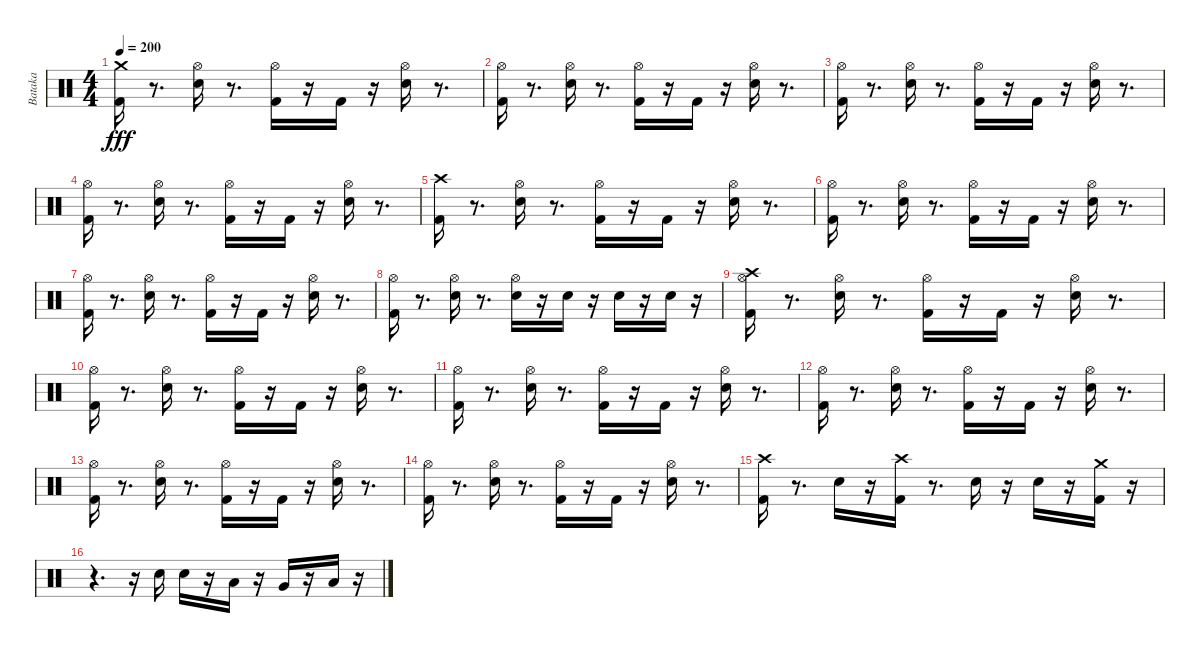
\track ("Bataka" "Bataka") {instrument percussion}
\staff {score}
\articulation defaults
\ts (4 4)
\tempo 200
\clef neutral
\ks c
("Kick (hit) 2" "Crash medium (hit)").16{dy fff} r.8{d} ("Electric Snare (hit)" "Hi-Hat (open)").16 r.8{d} ("Kick (hit) 2" "Hi-Hat (open)").16 r.16 "Kick (hit) 2".16 r.16 ("Electric Snare (hit)" "Hi-Hat (open)").16 r.8{d} |
("Kick (hit) 2" "Hi-Hat (open)").16 r.8{d} ("Electric Snare (hit)" "Hi-Hat (open)").16 r.8{d} ("Kick (hit) 2" "Hi-Hat (open)").16 r.16 "Kick (hit) 2".16 r.16 ("Electric Snare (hit)" "Hi-Hat (open)").16 r.8{d} |
("Kick (hit) 2" "Hi-Hat (open)").16 r.8{d} ("Electric Snare (hit)" "Hi-Hat (open)").16 r.8{d} ("Kick (hit) 2" "Hi-Hat (open)").16 r.16 "Kick (hit) 2".16 r.16 ("Electric Snare (hit)" "Hi-Hat (open)").16 r.8{d} |
("Kick (hit) 2" "Hi-Hat (open)").16 r.8{d} ("Electric Snare (hit)" "Hi-Hat (open)").16 r.8{d} ("Kick (hit) 2" "Hi-Hat (open)").16 r.16 "Kick (hit) 2".16 r.16 ("Electric Snare (hit)" "Hi-Hat (open)").16 r.8{d} |
("Kick (hit) 2" "Crash high (hit)").16 r.8{d} ("Electric Snare (hit)" "Hi-Hat (open)").16 r.8{d} ("Kick (hit) 2" "Hi-Hat (open)").16 r.16 "Kick (hit) 2".16 r.16 ("Electric Snare (hit)" "Hi-Hat (open)").16 r.8{d} |
("Kick (hit) 2" "Hi-Hat (open)").16 r.8{d} ("Electric Snare (hit)" "Hi-Hat (open)").16 r.8{d} ("Kick (hit) 2" "Hi-Hat (open)").16 r.16 "Kick (hit) 2".16 r.16 ("Electric Snare (hit)" "Hi-Hat (open)").16 r.8{d} |
("Kick (hit) 2" "Hi-Hat (open)").16 r.8{d} ("Electric Snare (hit)" "Hi-Hat (open)").16 r.8{d} ("Kick (hit) 2" "Hi-Hat (open)").16 r.16 "Kick (hit) 2".16 r.16 ("Electric Snare (hit)" "Hi-Hat (open)").16 r.8{d} |
("Kick (hit) 2" "Hi-Hat (open)").16 r.8{d} ("Electric Snare (hit)" "Hi-Hat (open)").16 r.8{d} ("Hi-Hat (open)" "Electric Snare (hit)").16 r.16 "Electric Snare (hit)".16 r.16 "Electric Snare (hit)".16 r.16 "Electric Snare (hit)".16 r.16 |
("Kick (hit) 2" "Hi-Hat (open)" "Crash high (hit)").16 r.8{d} ("Electric Snare (hit)" "Hi-Hat (open)").16 r.8{d} ("Kick (hit) 2" "Hi-Hat (open)").16 r.16 "Kick (hit) 2".16 r.16 ("Electric Snare (hit)" "Hi-Hat (open)").16 r.8{d} |
("Kick (hit) 2" "Hi-Hat (open)").16 r.8{d} ("Electric Snare (hit)" "Hi-Hat (open)").16 r.8{d} ("Kick (hit) 2" "Hi-Hat (open)").16 r.16 "Kick (hit) 2".16 r.16 ("Electric Snare (hit)" "Hi-Hat (open)").16 r.8{d} |
("Kick (hit) 2" "Hi-Hat (open)").16 r.8{d} ("Electric Snare (hit)" "Hi-Hat (open)").16 r.8{d} ("Kick (hit) 2" "Hi-Hat (open)").16 r.16 "Kick (hit) 2".16 r.16 ("Electric Snare (hit)" "Hi-Hat (open)").16 r.8{d} |
("Kick (hit) 2" "Hi-Hat (open)").16 r.8{d} ("Electric Snare (hit)" "Hi-Hat (open)").16 r.8{d} ("Kick (hit) 2" "Hi-Hat (open)").16 r.16 "Kick (hit) 2".16 r.16 ("Electric Snare (hit)" "Hi-Hat (open)").16 r.8{d} |
("Kick (hit) 2" "Hi-Hat (open)").16 r.8{d} ("Electric Snare (hit)" "Hi-Hat (open)").16 r.8{d} ("Kick (hit) 2" "Hi-Hat (open)").16 r.16 "Kick (hit) 2".16 r.16 ("Electric Snare (hit)" "Hi-Hat (open)").16 r.8{d} |
("Kick (hit) 2" "Hi-Hat (open)").16 r.8{d} ("Electric Snare (hit)" "Hi-Hat (open)").16 r.8{d} ("Kick (hit) 2" "Hi-Hat (open)").16 r.16 "Kick (hit) 2".16 r.16 ("Electric Snare (hit)" "Hi-Hat (open)").16 r.8{d} |
("Crash high (hit)" "Kick (hit) 2").16 r.8{d} "Electric Snare (hit)".16 r.16 ("Crash high (hit)" "Kick (hit) 2").16 r.8{d} "Electric Snare (hit)".16 r.16 "Electric Snare (hit)".16 r.16 ("Kick (hit) 2" "Crash medium (hit)").16 r.16 |
r.4{d} r.16 "Electric Snare (hit)".16 "Electric Snare (hit)".16 r.16 "Low Floor Tom (hit)".16 r.16 "Very Low Tom (hit)".16 r.16 "Low Tom (hit)".16 r.16
